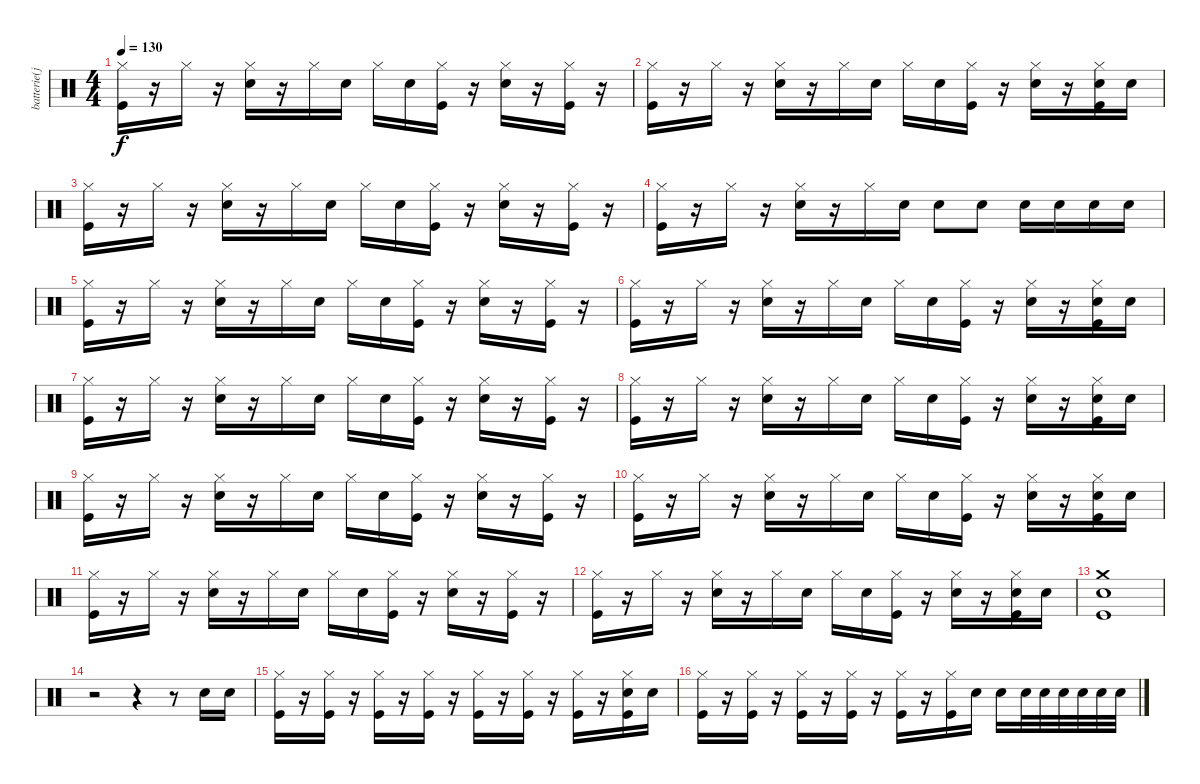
\track ("batterie(joost)" "batterie(j") {instrument percussion}
\staff {score}
\articulation defaults
\ts (4 4)
\tempo 130
\clef neutral
\ks c
("Hi-Hat (closed)" "Kick (hit)").16{dy f} r.16 "Hi-Hat (closed)".16 r.16 ("Hi-Hat (closed)" "Snare (hit) 2").16 r.16 "Hi-Hat (closed)".16 "Snare (hit) 2".16 "Hi-Hat (closed)".16 "Snare (hit) 2".16 ("Hi-Hat (closed)" "Kick (hit)").16 r.16 ("Hi-Hat (closed)" "Snare (hit) 2").16 r.16 ("Hi-Hat (closed)" "Kick (hit)").16 r.16 |
("Hi-Hat (closed)" "Kick (hit)").16 r.16 "Hi-Hat (closed)".16 r.16 ("Hi-Hat (closed)" "Snare (hit) 2").16 r.16 "Hi-Hat (closed)".16 "Snare (hit) 2".16 "Hi-Hat (closed)".16 "Snare (hit) 2".16 ("Hi-Hat (closed)" "Kick (hit)").16 r.16 ("Hi-Hat (closed)" "Snare (hit) 2").16 r.16 ("Hi-Hat (closed)" "Snare (hit) 2" "Kick (hit)").16 "Snare (hit) 2".16 |
("Hi-Hat (closed)" "Kick (hit)").16 r.16 "Hi-Hat (closed)".16 r.16 ("Hi-Hat (closed)" "Snare (hit) 2").16 r.16 "Hi-Hat (closed)".16 "Snare (hit) 2".16 "Hi-Hat (closed)".16 "Snare (hit) 2".16 ("Hi-Hat (closed)" "Kick (hit)").16 r.16 ("Hi-Hat (closed)" "Snare (hit) 2").16 r.16 ("Hi-Hat (closed)" "Kick (hit)").16 r.16 |
("Hi-Hat (closed)" "Kick (hit)").16 r.16 "Hi-Hat (closed)".16 r.16 ("Hi-Hat (closed)" "Snare (hit) 2").16 r.16 "Hi-Hat (closed)".16 "Snare (hit) 2".16 "Snare (hit) 2".8 "Snare (hit) 2".8 "Snare (hit) 2".16 "Snare (hit) 2".16 "Snare (hit) 2".16 "Snare (hit) 2".16 |
("Hi-Hat (closed)" "Kick (hit)").16 r.16 "Hi-Hat (closed)".16 r.16 ("Hi-Hat (closed)" "Snare (hit) 2").16 r.16 "Hi-Hat (closed)".16 "Snare (hit) 2".16 "Hi-Hat (closed)".16 "Snare (hit) 2".16 ("Hi-Hat (closed)" "Kick (hit)").16 r.16 ("Hi-Hat (closed)" "Snare (hit) 2").16 r.16 ("Hi-Hat (closed)" "Kick (hit)").16 r.16 |
("Hi-Hat (closed)" "Kick (hit)").16 r.16 "Hi-Hat (closed)".16 r.16 ("Hi-Hat (closed)" "Snare (hit) 2").16 r.16 "Hi-Hat (closed)".16 "Snare (hit) 2".16 "Hi-Hat (closed)".16 "Snare (hit) 2".16 ("Hi-Hat (closed)" "Kick (hit)").16 r.16 ("Hi-Hat (closed)" "Snare (hit) 2").16 r.16 ("Hi-Hat (closed)" "Snare (hit) 2" "Kick (hit)").16 "Snare (hit) 2".16 |
("Hi-Hat (closed)" "Kick (hit)").16 r.16 "Hi-Hat (closed)".16 r.16 ("Hi-Hat (closed)" "Snare (hit) 2").16 r.16 "Hi-Hat (closed)".16 "Snare (hit) 2".16 "Hi-Hat (closed)".16 "Snare (hit) 2".16 ("Hi-Hat (closed)" "Kick (hit)").16 r.16 ("Hi-Hat (closed)" "Snare (hit) 2").16 r.16 ("Hi-Hat (closed)" "Kick (hit)").16 r.16 |
("Hi-Hat (closed)" "Kick (hit)").16 r.16 "Hi-Hat (closed)".16 r.16 ("Hi-Hat (closed)" "Snare (hit) 2").16 r.16 "Hi-Hat (closed)".16 "Snare (hit) 2".16 "Hi-Hat (closed)".16 "Snare (hit) 2".16 ("Hi-Hat (closed)" "Kick (hit)").16 r.16 ("Hi-Hat (closed)" "Snare (hit) 2").16 r.16 ("Hi-Hat (closed)" "Snare (hit) 2" "Kick (hit)").16 "Snare (hit) 2".16 |
("Hi-Hat (closed)" "Kick (hit)").16 r.16 "Hi-Hat (closed)".16 r.16 ("Hi-Hat (closed)" "Snare (hit) 2").16 r.16 "Hi-Hat (closed)".16 "Snare (hit) 2".16 "Hi-Hat (closed)".16 "Snare (hit) 2".16 ("Hi-Hat (closed)" "Kick (hit)").16 r.16 ("Hi-Hat (closed)" "Snare (hit) 2").16 r.16 ("Hi-Hat (closed)" "Kick (hit)").16 r.16 |
("Hi-Hat (closed)" "Kick (hit)").16 r.16 "Hi-Hat (closed)".16 r.16 ("Hi-Hat (closed)" "Snare (hit) 2").16 r.16 "Hi-Hat (closed)".16 "Snare (hit) 2".16 "Hi-Hat (closed)".16 "Snare (hit) 2".16 ("Hi-Hat (closed)" "Kick (hit)").16 r.16 ("Hi-Hat (closed)" "Snare (hit) 2").16 r.16 ("Hi-Hat (closed)" "Snare (hit) 2" "Kick (hit)").16 "Snare (hit) 2".16 |
("Hi-Hat (closed)" "Kick (hit)").16 r.16 "Hi-Hat (closed)".16 r.16 ("Hi-Hat (closed)" "Snare (hit) 2").16 r.16 "Hi-Hat (closed)".16 "Snare (hit) 2".16 "Hi-Hat (closed)".16 "Snare (hit) 2".16 ("Hi-Hat (closed)" "Kick (hit)").16 r.16 ("Hi-Hat (closed)" "Snare (hit) 2").16 r.16 ("Hi-Hat (closed)" "Kick (hit)").16 r.16 |
("Hi-Hat (closed)" "Kick (hit)").16 r.16 "Hi-Hat (closed)".16 r.16 ("Hi-Hat (closed)" "Snare (hit) 2").16 r.16 "Hi-Hat (closed)".16 "Snare (hit) 2".16 "Hi-Hat (closed)".16 "Snare (hit) 2".16 ("Hi-Hat (closed)" "Kick (hit)").16 r.16 ("Hi-Hat (closed)" "Snare (hit) 2").16 r.16 ("Hi-Hat (closed)" "Snare (hit) 2" "Kick (hit)").16 "Snare (hit) 2".16 |
("Crash medium (hit)" "Snare (hit) 2" "Kick (hit)").1 |
r.2 r.4 r.8 "Snare (hit) 2".16 "Snare (hit) 2".16 |
("Hi-Hat (closed)" "Kick (hit)").16 r.16 ("Hi-Hat (closed)" "Kick (hit)").16 r.16 ("Hi-Hat (closed)" "Kick (hit)").16 r.16 ("Hi-Hat (closed)" "Kick (hit)").16 r.16 ("Hi-Hat (closed)" "Kick (hit)").16 r.16 ("Hi-Hat (closed)" "Kick (hit)").16 r.16 ("Hi-Hat (closed)" "Kick (hit)").16 r.16 ("Hi-Hat (closed)" "Snare (hit) 2" "Kick (hit)").16 "Snare (hit) 2".16 |
("Hi-Hat (closed)" "Kick (hit)").16 r.16 ("Hi-Hat (closed)" "Kick (hit)").16 r.16 ("Hi-Hat (closed)" "Kick (hit)").16 r.16 ("Hi-Hat (closed)" "Kick (hit)").16 r.16 ("Hi-Hat (closed)" "Kick (hit)").16 r.16 ("Hi-Hat (closed)" "Kick (hit)").16 "Snare (hit) 2".16 "Snare (hit) 2".16 "Snare (hit) 2".32 "Snare (hit) 2".32 "Snare (hit) 2".32 "Snare (hit) 2".32 "Snare (hit) 2".32 "Snare (hit) 2".32
